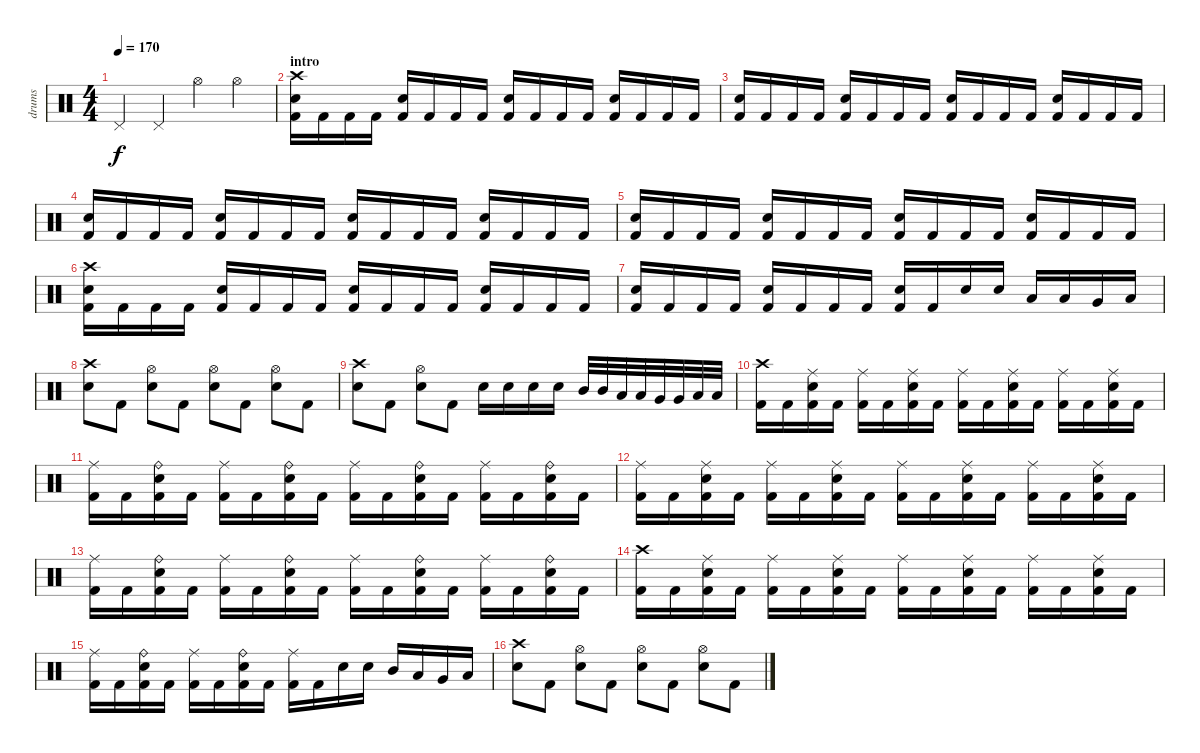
\track ("drums" "drums") {instrument percussion}
\staff {score}
\articulation defaults
\ts (4 4)
\tempo 170
\clef neutral
\ks c "Pedal Hi-Hat (hit)".4{dy f} "Pedal Hi-Hat (hit)".4 "Hi-Hat (open)".4 "Hi-Hat (open)".4
|
\section ("" "intro")
("Crash high (hit)" "Electric Snare (hit)" "Kick (hit) 2").16 "Kick (hit) 2".16 "Kick (hit) 2".16 "Kick (hit) 2".16 ("Electric Snare (hit)" "Kick (hit) 2").16 "Kick (hit) 2".16 "Kick (hit) 2".16 "Kick (hit) 2".16 ("Electric Snare (hit)" "Kick (hit) 2").16 "Kick (hit) 2".16 "Kick (hit) 2".16 "Kick (hit) 2".16 ("Electric Snare (hit)" "Kick (hit) 2").16 "Kick (hit) 2".16 "Kick (hit) 2".16 "Kick (hit) 2".16 |
("Electric Snare (hit)" "Kick (hit) 2").16 "Kick (hit) 2".16 "Kick (hit) 2".16 "Kick (hit) 2".16 ("Electric Snare (hit)" "Kick (hit) 2").16 "Kick (hit) 2".16 "Kick (hit) 2".16 "Kick (hit) 2".16 ("Electric Snare (hit)" "Kick (hit) 2").16 "Kick (hit) 2".16 "Kick (hit) 2".16 "Kick (hit) 2".16 ("Electric Snare (hit)" "Kick (hit) 2").16 "Kick (hit) 2".16 "Kick (hit) 2".16 "Kick (hit) 2".16 |
("Electric Snare (hit)" "Kick (hit) 2").16 "Kick (hit) 2".16 "Kick (hit) 2".16 "Kick (hit) 2".16 ("Electric Snare (hit)" "Kick (hit) 2").16 "Kick (hit) 2".16 "Kick (hit) 2".16 "Kick (hit) 2".16 ("Electric Snare (hit)" "Kick (hit) 2").16 "Kick (hit) 2".16 "Kick (hit) 2".16 "Kick (hit) 2".16 ("Electric Snare (hit)" "Kick (hit) 2").16 "Kick (hit) 2".16 "Kick (hit) 2".16 "Kick (hit) 2".16 |
("Electric Snare (hit)" "Kick (hit) 2").16 "Kick (hit) 2".16 "Kick (hit) 2".16 "Kick (hit) 2".16 ("Electric Snare (hit)" "Kick (hit) 2").16 "Kick (hit) 2".16 "Kick (hit) 2".16 "Kick (hit) 2".16 ("Electric Snare (hit)" "Kick (hit) 2").16 "Kick (hit) 2".16 "Kick (hit) 2".16 "Kick (hit) 2".16 ("Electric Snare (hit)" "Kick (hit) 2").16 "Kick (hit) 2".16 "Kick (hit) 2".16 "Kick (hit) 2".16 |
("Crash high (hit)" "Electric Snare (hit)" "Kick (hit) 2").16 "Kick (hit) 2".16 "Kick (hit) 2".16 "Kick (hit) 2".16 ("Electric Snare (hit)" "Kick (hit) 2").16 "Kick (hit) 2".16 "Kick (hit) 2".16 "Kick (hit) 2".16 ("Electric Snare (hit)" "Kick (hit) 2").16 "Kick (hit) 2".16 "Kick (hit) 2".16 "Kick (hit) 2".16 ("Electric Snare (hit)" "Kick (hit) 2").16 "Kick (hit) 2".16 "Kick (hit) 2".16 "Kick (hit) 2".16 |
("Electric Snare (hit)" "Kick (hit) 2").16 "Kick (hit) 2".16 "Kick (hit) 2".16 "Kick (hit) 2".16 ("Electric Snare (hit)" "Kick (hit) 2").16 "Kick (hit) 2".16 "Kick (hit) 2".16 "Kick (hit) 2".16 ("Electric Snare (hit)" "Kick (hit) 2").16 "Kick (hit) 2".16 "Electric Snare (hit)".16 "Electric Snare (hit)".16 "Low Tom (hit)".16 "Low Tom (hit)".16 "Very Low Tom (hit)".16 "Low Floor Tom (hit)".16 |
("Crash high (hit)" "Electric Snare (hit)").8 "Kick (hit) 2".8 ("Hi-Hat (open)" "Electric Snare (hit)").8 "Kick (hit) 2".8 ("Hi-Hat (open)" "Electric Snare (hit)").8 "Kick (hit) 2".8 ("Hi-Hat (open)" "Electric Snare (hit)").8 "Kick (hit) 2".8 |
("Crash high (hit)" "Electric Snare (hit)").8 "Kick (hit) 2".8 ("Hi-Hat (open)" "Electric Snare (hit)").8 "Kick (hit) 2".8 "Electric Snare (hit)".16 "Electric Snare (hit)".16 "Electric Snare (hit)".16 "Electric Snare (hit)".16 "Mid Tom (hit)".32 "Mid Tom (hit)".32 "Low Tom (hit)".32 "Low Tom (hit)".32 "Very Low Tom (hit)".32 "Very Low Tom (hit)".32 "Low Floor Tom (hit)".32 "Low Floor Tom (hit)".32 |
("Crash high (hit)" "Kick (hit) 2").16 "Kick (hit) 2".16 ("Ride (middle)" "Electric Snare (hit)" "Kick (hit) 2").16 "Kick (hit) 2".16 ("Ride (middle)" "Kick (hit) 2").16 "Kick (hit) 2".16 ("Ride (middle)" "Electric Snare (hit)" "Kick (hit) 2").16 "Kick (hit) 2".16 ("Ride (middle)" "Kick (hit) 2").16 "Kick (hit) 2".16 ("Ride (middle)" "Electric Snare (hit)" "Kick (hit) 2").16 "Kick (hit) 2".16 ("Ride (middle)" "Kick (hit) 2").16 "Kick (hit) 2".16 ("Ride (middle)" "Electric Snare (hit)" "Kick (hit) 2").16 "Kick (hit) 2".16 |
("Ride (middle)" "Kick (hit) 2").16 "Kick (hit) 2".16 ("Ride (bell)" "Electric Snare (hit)" "Kick (hit) 2").16 "Kick (hit) 2".16 ("Ride (middle)" "Kick (hit) 2").16 "Kick (hit) 2".16 ("Ride (bell)" "Electric Snare (hit)" "Kick (hit) 2").16 "Kick (hit) 2".16 ("Ride (middle)" "Kick (hit) 2").16 "Kick (hit) 2".16 ("Ride (bell)" "Electric Snare (hit)" "Kick (hit) 2").16 "Kick (hit) 2".16 ("Ride (middle)" "Kick (hit) 2").16 "Kick (hit) 2".16 ("Ride (bell)" "Electric Snare (hit)" "Kick (hit) 2").16 "Kick (hit) 2".16 |
("Ride (middle)" "Kick (hit) 2").16 "Kick (hit) 2".16 ("Ride (middle)" "Electric Snare (hit)" "Kick (hit) 2").16 "Kick (hit) 2".16 ("Ride (middle)" "Kick (hit) 2").16 "Kick (hit) 2".16 ("Ride (middle)" "Electric Snare (hit)" "Kick (hit) 2").16 "Kick (hit) 2".16 ("Ride (middle)" "Kick (hit) 2").16 "Kick (hit) 2".16 ("Ride (middle)" "Electric Snare (hit)" "Kick (hit) 2").16 "Kick (hit) 2".16 ("Ride (middle)" "Kick (hit) 2").16 "Kick (hit) 2".16 ("Ride (middle)" "Electric Snare (hit)" "Kick (hit) 2").16 "Kick (hit) 2".16 |
("Ride (middle)" "Kick (hit) 2").16 "Kick (hit) 2".16 ("Ride (bell)" "Electric Snare (hit)" "Kick (hit) 2").16 "Kick (hit) 2".16 ("Ride (middle)" "Kick (hit) 2").16 "Kick (hit) 2".16 ("Ride (bell)" "Electric Snare (hit)" "Kick (hit) 2").16 "Kick (hit) 2".16 ("Ride (middle)" "Kick (hit) 2").16 "Kick (hit) 2".16 ("Ride (bell)" "Electric Snare (hit)" "Kick (hit) 2").16 "Kick (hit) 2".16 ("Ride (middle)" "Kick (hit) 2").16 "Kick (hit) 2".16 ("Ride (bell)" "Electric Snare (hit)" "Kick (hit) 2").16 "Kick (hit) 2".16 |
("Crash high (hit)" "Kick (hit) 2").16 "Kick (hit) 2".16 ("Ride (middle)" "Electric Snare (hit)" "Kick (hit) 2").16 "Kick (hit) 2".16 ("Ride (middle)" "Kick (hit) 2").16 "Kick (hit) 2".16 ("Ride (middle)" "Electric Snare (hit)" "Kick (hit) 2").16 "Kick (hit) 2".16 ("Ride (middle)" "Kick (hit) 2").16 "Kick (hit) 2".16 ("Ride (middle)" "Electric Snare (hit)" "Kick (hit) 2").16 "Kick (hit) 2".16 ("Ride (middle)" "Kick (hit) 2").16 "Kick (hit) 2".16 ("Ride (middle)" "Electric Snare (hit)" "Kick (hit) 2").16 "Kick (hit) 2".16 |
("Ride (middle)" "Kick (hit) 2").16 "Kick (hit) 2".16 ("Ride (bell)" "Electric Snare (hit)" "Kick (hit) 2").16 "Kick (hit) 2".16 ("Ride (middle)" "Kick (hit) 2").16 "Kick (hit) 2".16 ("Ride (bell)" "Electric Snare (hit)" "Kick (hit) 2").16 "Kick (hit) 2".16 ("Ride (middle)" "Kick (hit) 2").16 "Kick (hit) 2".16 "Electric Snare (hit)".16 "Electric Snare (hit)".16 "Mid Tom (hit)".16 "Low Tom (hit)".16 "Very Low Tom (hit)".16 "Low Floor Tom (hit)".16 |
("Crash high (hit)" "Electric Snare (hit)").8 "Kick (hit) 2".8 ("Hi-Hat (open)" "Electric Snare (hit)").8 "Kick (hit) 2".8 ("Hi-Hat (open)" "Electric Snare (hit)").8 "Kick (hit) 2".8 ("Hi-Hat (open)" "Electric Snare (hit)").8 "Kick (hit) 2".8
